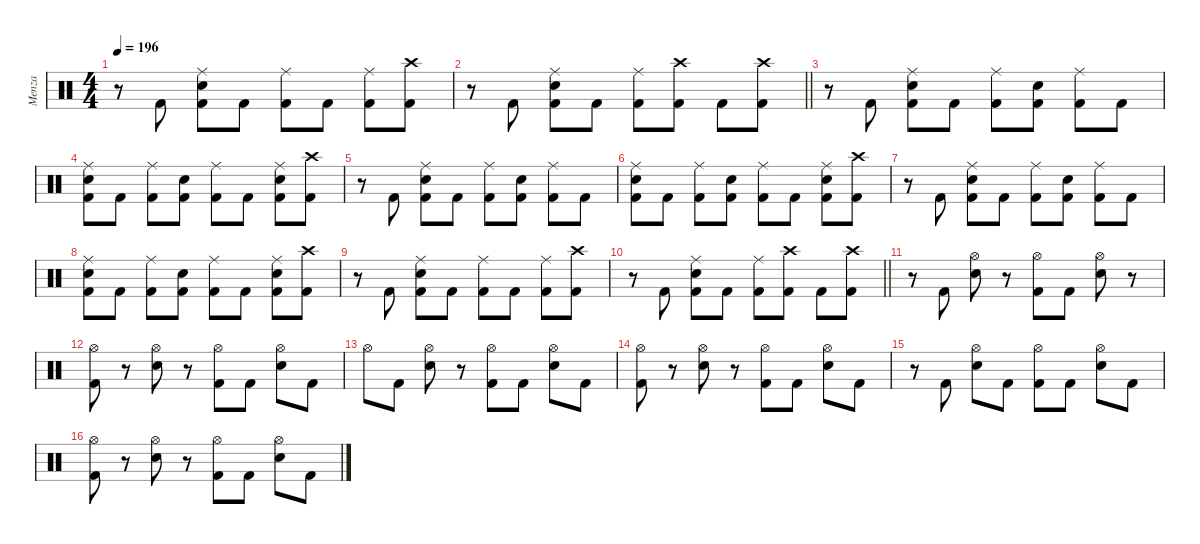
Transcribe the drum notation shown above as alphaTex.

\defaultSystemsLayout 4
\hideDynamics
\bracketExtendMode nobrackets
\firstSystemTrackNameMode fullname
\otherSystemsTrackNameOrientation horizontal
\track ("Menza" "drm.") {instrument percussion}
\staff {score}
\articulation defaults
\ts (4 4)
\tempo 196
\clef neutral
\ks c
r.8{dy fff beam Down} "Kick (hit) 2".8{beam Up} ("Ride (middle)" "Snare (hit) 2" "Kick (hit) 2").8{dy f beam Down} "Kick (hit) 2".8{dy fff beam Down} ("Ride (middle)" "Kick (hit) 2").8{dy f beam Down} "Kick (hit) 2".8{dy fff beam Down} ("Ride (middle)" "Kick (hit) 2").8{dy f beam Down} ("Crash high (hit)" "Kick (hit) 2").8{dy fff beam Down} |
\barLineRight lightlight
r.8{beam Down} "Kick (hit) 2".8{beam Up} ("Ride (middle)" "Snare (hit) 2" "Kick (hit) 2").8{dy f beam Down} "Kick (hit) 2".8{dy fff beam Down} ("Ride (middle)" "Kick (hit) 2").8{dy f beam Down} ("Crash high (hit)" "Kick (hit) 2").8{dy ff beam Down} "Kick (hit) 2".8{dy fff beam Down} ("Crash high (hit)" "Kick (hit) 2").8{beam Down} |
r.8{beam Down} "Kick (hit) 2".8{beam Up} ("Ride (middle)" "Snare (hit) 2" "Kick (hit) 2").8{dy f beam Down} "Kick (hit) 2".8{dy fff beam Down} ("Ride (middle)" "Kick (hit) 2").8{dy f beam Down} ("Snare (hit) 2" "Kick (hit) 2").8{dy fff beam Down} ("Ride (middle)" "Kick (hit) 2").8{dy f beam Down} "Kick (hit) 2".8{dy fff beam Down} |
("Ride (middle)" "Snare (hit) 2" "Kick (hit) 2").8{dy f beam Down} "Kick (hit) 2".8{dy fff beam Down} ("Ride (middle)" "Kick (hit) 2").8{dy f beam Down} ("Snare (hit) 2" "Kick (hit) 2").8{dy fff beam Down} ("Ride (middle)" "Kick (hit) 2").8{dy f beam Down} "Kick (hit) 2".8{dy fff beam Down} ("Ride (middle)" "Snare (hit) 2" "Kick (hit) 2").8{dy f beam Down} ("Crash high (hit)" "Kick (hit) 2").8{dy fff beam Down} |
r.8{beam Down} "Kick (hit) 2".8{beam Up} ("Ride (middle)" "Snare (hit) 2" "Kick (hit) 2").8{dy f beam Down} "Kick (hit) 2".8{dy fff beam Down} ("Ride (middle)" "Kick (hit) 2").8{dy f beam Down} ("Snare (hit) 2" "Kick (hit) 2").8{dy fff beam Down} ("Ride (middle)" "Kick (hit) 2").8{dy f beam Down} "Kick (hit) 2".8{dy fff beam Down} |
("Ride (middle)" "Snare (hit) 2" "Kick (hit) 2").8{dy f beam Down} "Kick (hit) 2".8{dy fff beam Down} ("Ride (middle)" "Kick (hit) 2").8{dy f beam Down} ("Snare (hit) 2" "Kick (hit) 2").8{dy fff beam Down} ("Ride (middle)" "Kick (hit) 2").8{dy f beam Down} "Kick (hit) 2".8{dy fff beam Down} ("Ride (middle)" "Snare (hit) 2" "Kick (hit) 2").8{dy f beam Down} ("Crash high (hit)" "Kick (hit) 2").8{dy fff beam Down} |
r.8{beam Down} "Kick (hit) 2".8{beam Up} ("Ride (middle)" "Snare (hit) 2" "Kick (hit) 2").8{dy f beam Down} "Kick (hit) 2".8{dy fff beam Down} ("Ride (middle)" "Kick (hit) 2").8{dy f beam Down} ("Snare (hit) 2" "Kick (hit) 2").8{dy fff beam Down} ("Ride (middle)" "Kick (hit) 2").8{dy f beam Down} "Kick (hit) 2".8{dy fff beam Down} |
("Ride (middle)" "Snare (hit) 2" "Kick (hit) 2").8{dy f beam Down} "Kick (hit) 2".8{dy fff beam Down} ("Ride (middle)" "Kick (hit) 2").8{dy f beam Down} ("Snare (hit) 2" "Kick (hit) 2").8{dy fff beam Down} ("Ride (middle)" "Kick (hit) 2").8{dy f beam Down} "Kick (hit) 2".8{dy fff beam Down} ("Ride (middle)" "Snare (hit) 2" "Kick (hit) 2").8{dy f beam Down} ("Crash high (hit)" "Kick (hit) 2").8{dy fff beam Down} |
r.8{beam Down} "Kick (hit) 2".8{beam Up} ("Ride (middle)" "Snare (hit) 2" "Kick (hit) 2").8{dy f beam Down} "Kick (hit) 2".8{dy fff beam Down} ("Ride (middle)" "Kick (hit) 2").8{dy f beam Down} "Kick (hit) 2".8{dy fff beam Down} ("Ride (middle)" "Kick (hit) 2").8{dy f beam Down} ("Crash high (hit)" "Kick (hit) 2").8{dy fff beam Down} |
\barLineRight lightlight
r.8{beam Down} "Kick (hit) 2".8{beam Up} ("Ride (middle)" "Snare (hit) 2" "Kick (hit) 2").8{dy f beam Down} "Kick (hit) 2".8{dy fff beam Down} ("Ride (middle)" "Kick (hit) 2").8{dy f beam Down} ("Crash high (hit)" "Kick (hit) 2").8{dy ff beam Down} "Kick (hit) 2".8{dy fff beam Down} ("Crash high (hit)" "Kick (hit) 2").8{beam Down} |
r.8{beam Down} "Kick (hit) 2".8{beam Up} ("Hi-Hat (open)" "Snare (hit) 2").8{dy f beam Down} r.8{beam Down} ("Hi-Hat (open)" "Kick (hit) 2").8{beam Down} "Kick (hit) 2".8{dy fff beam Down} ("Hi-Hat (open)" "Snare (hit) 2").8{dy f beam Down} r.8{beam Down} |
("Hi-Hat (open)" "Kick (hit) 2").8{beam Down} r.8{beam Down} ("Hi-Hat (open)" "Snare (hit) 2").8{beam Down} r.8{beam Down} ("Hi-Hat (open)" "Kick (hit) 2").8{beam Down} "Kick (hit) 2".8{dy fff beam Down} ("Hi-Hat (open)" "Snare (hit) 2").8{dy f beam Down} "Kick (hit) 2".8{dy fff beam Down} |
"Hi-Hat (open)".8{dy f beam Down} "Kick (hit) 2".8{dy fff beam Down} ("Hi-Hat (open)" "Snare (hit) 2").8{dy f beam Down} r.8{beam Down} ("Hi-Hat (open)" "Kick (hit) 2").8{beam Down} "Kick (hit) 2".8{dy fff beam Down} ("Hi-Hat (open)" "Snare (hit) 2").8{dy f beam Down} "Kick (hit) 2".8{dy fff beam Down} |
("Hi-Hat (open)" "Kick (hit) 2").8{dy f beam Down} r.8{beam Down} ("Hi-Hat (open)" "Snare (hit) 2").8{beam Down} r.8{beam Down} ("Hi-Hat (open)" "Kick (hit) 2").8{beam Down} "Kick (hit) 2".8{dy fff beam Down} ("Hi-Hat (open)" "Snare (hit) 2").8{dy f beam Down} "Kick (hit) 2".8{dy fff beam Down} |
r.8{beam Down} "Kick (hit) 2".8{beam Up} ("Hi-Hat (open)" "Snare (hit) 2").8{dy f beam Down} "Kick (hit) 2".8{dy fff beam Down} ("Hi-Hat (open)" "Kick (hit) 2").8{dy f beam Down} "Kick (hit) 2".8{dy fff beam Down} ("Hi-Hat (open)" "Snare (hit) 2").8{dy f beam Down} "Kick (hit) 2".8{dy fff beam Down} |
("Hi-Hat (open)" "Kick (hit) 2").8{dy f beam Down} r.8{beam Down} ("Hi-Hat (open)" "Snare (hit) 2").8{beam Down} r.8{beam Down} ("Hi-Hat (open)" "Kick (hit) 2").8{beam Down} "Kick (hit) 2".8{dy fff beam Down} ("Hi-Hat (open)" "Snare (hit) 2").8{dy f beam Down} "Kick (hit) 2".8{dy fff beam Down}
